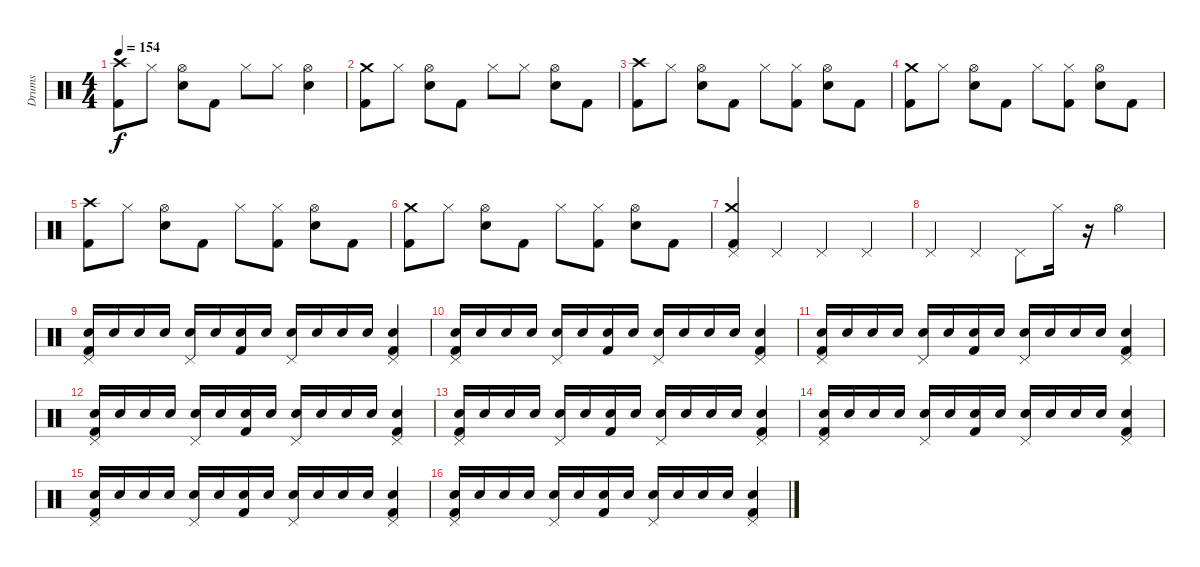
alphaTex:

\track ("Drums" "Drums") {instrument percussion}
\staff {score}
\articulation defaults
\ts (4 4)
\tempo 154
\clef neutral
\ks c
("Crash high (hit)" "Kick (hit) 2").8{dy f} "Hi-Hat (closed)".8 ("Electric Snare (hit)" "Hi-Hat (open)").8 "Kick (hit) 2".8 "Hi-Hat (closed)".8 "Hi-Hat (closed)".8 ("Hi-Hat (open)" "Electric Snare (hit)").4 |
("Crash medium (hit)" "Kick (hit) 2").8 "Hi-Hat (closed)".8 ("Electric Snare (hit)" "Hi-Hat (open)").8 "Kick (hit) 2".8 "Hi-Hat (closed)".8 "Hi-Hat (closed)".8 ("Hi-Hat (open)" "Electric Snare (hit)").8 "Kick (hit) 2".8 |
("Crash high (hit)" "Kick (hit) 2").8 "Hi-Hat (closed)".8 ("Electric Snare (hit)" "Hi-Hat (open)").8 "Kick (hit) 2".8 "Hi-Hat (closed)".8 ("Kick (hit) 2" "Hi-Hat (closed)").8 ("Hi-Hat (open)" "Electric Snare (hit)").8 "Kick (hit) 2".8 |
("Crash medium (hit)" "Kick (hit) 2").8 "Hi-Hat (closed)".8 ("Electric Snare (hit)" "Hi-Hat (open)").8 "Kick (hit) 2".8 "Hi-Hat (closed)".8 ("Kick (hit) 2" "Hi-Hat (closed)").8 ("Hi-Hat (open)" "Electric Snare (hit)").8 "Kick (hit) 2".8 |
("Crash high (hit)" "Kick (hit) 2").8 "Hi-Hat (closed)".8 ("Electric Snare (hit)" "Hi-Hat (open)").8 "Kick (hit) 2".8 "Hi-Hat (closed)".8 ("Kick (hit) 2" "Hi-Hat (closed)").8 ("Hi-Hat (open)" "Electric Snare (hit)").8 "Kick (hit) 2".8 |
("Crash medium (hit)" "Kick (hit) 2").8 "Hi-Hat (closed)".8 ("Electric Snare (hit)" "Hi-Hat (open)").8 "Kick (hit) 2".8 "Hi-Hat (closed)".8 ("Kick (hit) 2" "Hi-Hat (closed)").8 ("Hi-Hat (open)" "Electric Snare (hit)").8 "Kick (hit) 2".8 |
("Pedal Hi-Hat (hit)" "Kick (hit) 2" "Crash medium (hit)").4 "Pedal Hi-Hat (hit)".4 "Pedal Hi-Hat (hit)".4 "Pedal Hi-Hat (hit)".4 |
"Pedal Hi-Hat (hit)".4 "Pedal Hi-Hat (hit)".4 "Pedal Hi-Hat (hit)".8 "Hi-Hat (closed)".16 r.16 "Hi-Hat (open)".4 |
("Pedal Hi-Hat (hit)" "Electric Snare (hit)" "Kick (hit) 2").16 "Electric Snare (hit)".16 "Electric Snare (hit)".16 "Electric Snare (hit)".16 ("Pedal Hi-Hat (hit)" "Electric Snare (hit)").16 "Electric Snare (hit)".16 ("Kick (hit) 2" "Electric Snare (hit)").16 "Electric Snare (hit)".16 ("Pedal Hi-Hat (hit)" "Electric Snare (hit)").16 "Electric Snare (hit)".16 "Electric Snare (hit)".16 "Electric Snare (hit)".16 ("Kick (hit) 2" "Electric Snare (hit)" "Pedal Hi-Hat (hit)").4 |
("Pedal Hi-Hat (hit)" "Electric Snare (hit)" "Kick (hit) 2").16 "Electric Snare (hit)".16 "Electric Snare (hit)".16 "Electric Snare (hit)".16 ("Pedal Hi-Hat (hit)" "Electric Snare (hit)").16 "Electric Snare (hit)".16 ("Kick (hit) 2" "Electric Snare (hit)").16 "Electric Snare (hit)".16 ("Pedal Hi-Hat (hit)" "Electric Snare (hit)").16 "Electric Snare (hit)".16 "Electric Snare (hit)".16 "Electric Snare (hit)".16 ("Kick (hit) 2" "Electric Snare (hit)" "Pedal Hi-Hat (hit)").4 |
("Pedal Hi-Hat (hit)" "Electric Snare (hit)" "Kick (hit) 2").16 "Electric Snare (hit)".16 "Electric Snare (hit)".16 "Electric Snare (hit)".16 ("Pedal Hi-Hat (hit)" "Electric Snare (hit)").16 "Electric Snare (hit)".16 ("Kick (hit) 2" "Electric Snare (hit)").16 "Electric Snare (hit)".16 ("Pedal Hi-Hat (hit)" "Electric Snare (hit)").16 "Electric Snare (hit)".16 "Electric Snare (hit)".16 "Electric Snare (hit)".16 ("Kick (hit) 2" "Electric Snare (hit)" "Pedal Hi-Hat (hit)").4 |
("Pedal Hi-Hat (hit)" "Electric Snare (hit)" "Kick (hit) 2").16 "Electric Snare (hit)".16 "Electric Snare (hit)".16 "Electric Snare (hit)".16 ("Pedal Hi-Hat (hit)" "Electric Snare (hit)").16 "Electric Snare (hit)".16 ("Kick (hit) 2" "Electric Snare (hit)").16 "Electric Snare (hit)".16 ("Pedal Hi-Hat (hit)" "Electric Snare (hit)").16 "Electric Snare (hit)".16 "Electric Snare (hit)".16 "Electric Snare (hit)".16 ("Kick (hit) 2" "Electric Snare (hit)" "Pedal Hi-Hat (hit)").4 |
("Pedal Hi-Hat (hit)" "Electric Snare (hit)" "Kick (hit) 2").16 "Electric Snare (hit)".16 "Electric Snare (hit)".16 "Electric Snare (hit)".16 ("Pedal Hi-Hat (hit)" "Electric Snare (hit)").16 "Electric Snare (hit)".16 ("Kick (hit) 2" "Electric Snare (hit)").16 "Electric Snare (hit)".16 ("Pedal Hi-Hat (hit)" "Electric Snare (hit)").16 "Electric Snare (hit)".16 "Electric Snare (hit)".16 "Electric Snare (hit)".16 ("Kick (hit) 2" "Electric Snare (hit)" "Pedal Hi-Hat (hit)").4 |
("Pedal Hi-Hat (hit)" "Electric Snare (hit)" "Kick (hit) 2").16 "Electric Snare (hit)".16 "Electric Snare (hit)".16 "Electric Snare (hit)".16 ("Pedal Hi-Hat (hit)" "Electric Snare (hit)").16 "Electric Snare (hit)".16 ("Kick (hit) 2" "Electric Snare (hit)").16 "Electric Snare (hit)".16 ("Pedal Hi-Hat (hit)" "Electric Snare (hit)").16 "Electric Snare (hit)".16 "Electric Snare (hit)".16 "Electric Snare (hit)".16 ("Kick (hit) 2" "Electric Snare (hit)" "Pedal Hi-Hat (hit)").4 |
("Pedal Hi-Hat (hit)" "Electric Snare (hit)" "Kick (hit) 2").16 "Electric Snare (hit)".16 "Electric Snare (hit)".16 "Electric Snare (hit)".16 ("Pedal Hi-Hat (hit)" "Electric Snare (hit)").16 "Electric Snare (hit)".16 ("Kick (hit) 2" "Electric Snare (hit)").16 "Electric Snare (hit)".16 ("Pedal Hi-Hat (hit)" "Electric Snare (hit)").16 "Electric Snare (hit)".16 "Electric Snare (hit)".16 "Electric Snare (hit)".16 ("Kick (hit) 2" "Electric Snare (hit)" "Pedal Hi-Hat (hit)").4 |
("Pedal Hi-Hat (hit)" "Electric Snare (hit)" "Kick (hit) 2").16 "Electric Snare (hit)".16 "Electric Snare (hit)".16 "Electric Snare (hit)".16 ("Pedal Hi-Hat (hit)" "Electric Snare (hit)").16 "Electric Snare (hit)".16 ("Kick (hit) 2" "Electric Snare (hit)").16 "Electric Snare (hit)".16 ("Pedal Hi-Hat (hit)" "Electric Snare (hit)").16 "Electric Snare (hit)".16 "Electric Snare (hit)".16 "Electric Snare (hit)".16 ("Kick (hit) 2" "Electric Snare (hit)" "Pedal Hi-Hat (hit)").4
